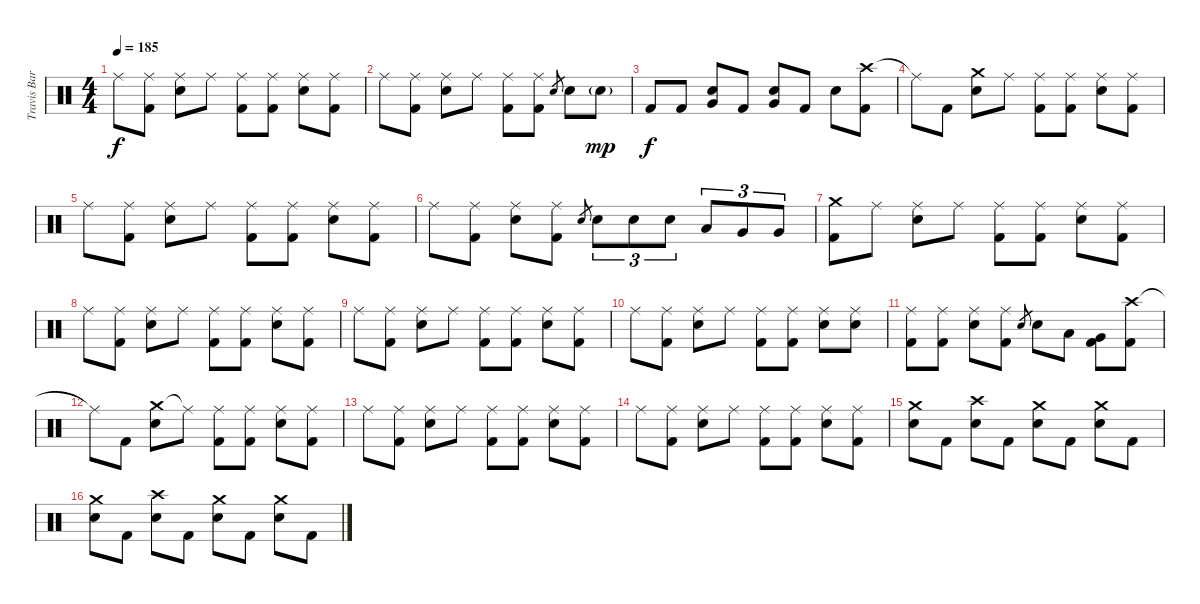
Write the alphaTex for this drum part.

\track ("Travis Barker - Drums" "Travis Bar") {instrument percussion}
\staff {score}
\articulation defaults
\ts (4 4)
\tempo 185
\clef neutral
\ks c "Ride (middle)".8{dy f}
("Ride (middle)" "Kick (hit) 2").8 ("Ride (middle)" "Electric Snare (hit)").8 "Ride (middle)".8 ("Ride (middle)" "Kick (hit) 2").8 ("Ride (middle)" "Kick (hit) 2").8 ("Ride (middle)" "Electric Snare (hit)").8 ("Ride (middle)" "Kick (hit) 2").8 |
"Ride (middle)".8 ("Ride (middle)" "Kick (hit) 2").8 ("Ride (middle)" "Electric Snare (hit)").8 "Ride (middle)".8 ("Ride (middle)" "Kick (hit) 2").8 ("Ride (middle)" "Kick (hit) 2").8 "Electric Snare (hit)".8{gr} "Electric Snare (hit)".8 "Electric Snare (hit)"{g}.8{dy mp} |
"Kick (hit) 2".8{dy f} "Kick (hit) 2".8 ("Very Low Tom (hit)" "Electric Snare (hit)").8 "Kick (hit) 2".8 ("Very Low Tom (hit)" "Electric Snare (hit)").8 "Kick (hit) 2".8 "Electric Snare (hit)".8 ("Crash high (hit)" "Kick (hit) 2").8 |
"Ride (middle)"{t}.8 "Kick (hit) 2".8 ("Crash medium (hit)" "Electric Snare (hit)").8 "Ride (middle)".8 ("Ride (middle)" "Kick (hit) 2").8 ("Ride (middle)" "Kick (hit) 2").8 ("Ride (middle)" "Electric Snare (hit)").8 ("Ride (middle)" "Kick (hit) 2").8 |
"Ride (middle)".8 ("Ride (middle)" "Kick (hit) 2").8 ("Ride (middle)" "Electric Snare (hit)").8 "Ride (middle)".8 ("Ride (middle)" "Kick (hit) 2").8 ("Ride (middle)" "Kick (hit) 2").8 ("Ride (middle)" "Electric Snare (hit)").8 ("Ride (middle)" "Kick (hit) 2").8 |
"Ride (middle)".8 ("Ride (middle)" "Kick (hit) 2").8 ("Ride (middle)" "Electric Snare (hit)").8 ("Ride (middle)" "Kick (hit) 2").8 "Electric Snare (hit)".8{gr} "Electric Snare (hit)".8{tu (3 2)} "Electric Snare (hit)".8{tu (3 2)} "Electric Snare (hit)".8{tu (3 2)} "Low Tom (hit)".8{tu (3 2)} "Very Low Tom (hit)".8{tu (3 2)} "Very Low Tom (hit)".8{tu (3 2)} |
("Crash medium (hit)" "Kick (hit) 2").8 "Ride (middle)".8 ("Ride (middle)" "Electric Snare (hit)").8 "Ride (middle)".8 ("Ride (middle)" "Kick (hit) 2").8 ("Ride (middle)" "Kick (hit) 2").8 ("Ride (middle)" "Electric Snare (hit)").8 ("Ride (middle)" "Kick (hit) 2").8 |
"Ride (middle)".8 ("Ride (middle)" "Kick (hit) 2").8 ("Ride (middle)" "Electric Snare (hit)").8 "Ride (middle)".8 ("Ride (middle)" "Kick (hit) 2").8 ("Ride (middle)" "Kick (hit) 2").8 ("Ride (middle)" "Electric Snare (hit)").8 ("Ride (middle)" "Kick (hit) 2").8 |
"Ride (middle)".8 ("Ride (middle)" "Kick (hit) 2").8 ("Ride (middle)" "Electric Snare (hit)").8 "Ride (middle)".8 ("Ride (middle)" "Kick (hit) 2").8 ("Ride (middle)" "Kick (hit) 2").8 ("Ride (middle)" "Electric Snare (hit)").8 ("Ride (middle)" "Kick (hit) 2").8 |
"Ride (middle)".8 ("Ride (middle)" "Kick (hit) 2").8 ("Ride (middle)" "Electric Snare (hit)").8 "Ride (middle)".8 ("Ride (middle)" "Kick (hit) 2").8 ("Ride (middle)" "Kick (hit) 2").8 ("Ride (middle)" "Electric Snare (hit)").8 ("Ride (middle)" "Electric Snare (hit)").8 |
("Ride (middle)" "Kick (hit) 2").8 ("Ride (middle)" "Kick (hit) 2").8 ("Ride (middle)" "Electric Snare (hit)").8 ("Ride (middle)" "Kick (hit) 2").8 "Electric Snare (hit)".8{gr} "Electric Snare (hit)".8 "Low Tom (hit)".8 ("Very Low Tom (hit)" "Kick (hit) 2").8 ("Crash high (hit)" "Kick (hit) 2").8 |
"Ride (middle)"{t}.8 "Kick (hit) 2".8 ("Crash medium (hit)" "Electric Snare (hit)").8 "Ride (middle)"{t}.8 ("Ride (middle)" "Kick (hit) 2").8 ("Ride (middle)" "Kick (hit) 2").8 ("Ride (middle)" "Electric Snare (hit)").8 ("Ride (middle)" "Kick (hit) 2").8 |
"Ride (middle)".8 ("Ride (middle)" "Kick (hit) 2").8 ("Ride (middle)" "Electric Snare (hit)").8 "Ride (middle)".8 ("Ride (middle)" "Kick (hit) 2").8 ("Ride (middle)" "Kick (hit) 2").8 ("Ride (middle)" "Electric Snare (hit)").8 ("Ride (middle)" "Kick (hit) 2").8 |
"Ride (middle)".8 ("Ride (middle)" "Kick (hit) 2").8 ("Ride (middle)" "Electric Snare (hit)").8 "Ride (middle)".8 ("Ride (middle)" "Kick (hit) 2").8 ("Ride (middle)" "Kick (hit) 2").8 ("Ride (middle)" "Electric Snare (hit)").8 ("Ride (middle)" "Kick (hit) 2").8 |
("Crash medium (hit)" "Electric Snare (hit)").8 "Kick (hit) 2".8 ("Crash high (hit)" "Electric Snare (hit)").8 "Kick (hit) 2".8 ("Crash medium (hit)" "Electric Snare (hit)").8 "Kick (hit) 2".8 ("Crash medium (hit)" "Electric Snare (hit)").8 "Kick (hit) 2".8 |
("Crash medium (hit)" "Electric Snare (hit)").8 "Kick (hit) 2".8 ("Crash high (hit)" "Electric Snare (hit)").8 "Kick (hit) 2".8 ("Crash medium (hit)" "Electric Snare (hit)").8 "Kick (hit) 2".8 ("Crash medium (hit)" "Electric Snare (hit)").8 "Kick (hit) 2".8
